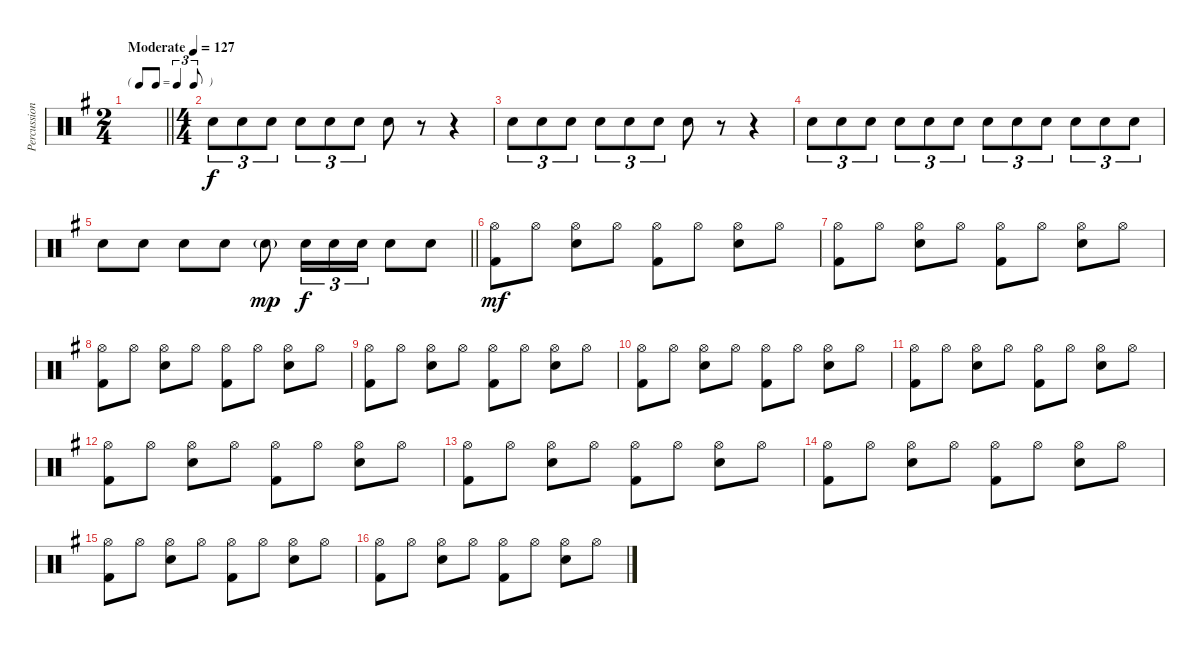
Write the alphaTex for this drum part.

\track ("Percussion" "Percussion") {instrument percussion}
\staff {score}
\articulation defaults
\ts (2 4)
\tf triplet8th
\tempo (127 "Moderate")
\clef neutral
\barLineRight lightlight
\ks g
|
\ts (4 4)
"Snare (hit) 2".8{tu (3 2)} "Snare (hit) 2".8{tu (3 2)} "Snare (hit) 2".8{tu (3 2)} "Snare (hit) 2".8{tu (3 2)} "Snare (hit) 2".8{tu (3 2)} "Snare (hit) 2".8{tu (3 2)} "Snare (hit) 2".8 r.8 r.4 |
"Snare (hit) 2".8{tu (3 2)} "Snare (hit) 2".8{tu (3 2)} "Snare (hit) 2".8{tu (3 2)} "Snare (hit) 2".8{tu (3 2)} "Snare (hit) 2".8{tu (3 2)} "Snare (hit) 2".8{tu (3 2)} "Snare (hit) 2".8 r.8 r.4 |
"Snare (hit) 2".8{tu (3 2)} "Snare (hit) 2".8{tu (3 2)} "Snare (hit) 2".8{tu (3 2)} "Snare (hit) 2".8{tu (3 2)} "Snare (hit) 2".8{tu (3 2)} "Snare (hit) 2".8{tu (3 2)} "Snare (hit) 2".8{tu (3 2)} "Snare (hit) 2".8{tu (3 2)} "Snare (hit) 2".8{tu (3 2)} "Snare (hit) 2".8{tu (3 2)} "Snare (hit) 2".8{tu (3 2)} "Snare (hit) 2".8{tu (3 2)} |
\barLineRight lightlight "Snare (hit) 2".8{dy f} "Snare (hit) 2".8 "Snare (hit) 2".8 "Snare (hit) 2".8 "Snare (hit) 2"{g}.8{dy mp} "Snare (hit) 2".16{tu (3 2) dy f} "Snare (hit) 2".16{tu (3 2)} "Snare (hit) 2".16{tu (3 2)} "Snare (hit) 2".8 "Snare (hit) 2".8
|
("Hi-Hat (open)" "Kick (hit) 2").8{dy mf} "Hi-Hat (open)".8 ("Hi-Hat (open)" "Snare (hit) 2").8 "Hi-Hat (open)".8 ("Hi-Hat (open)" "Kick (hit) 2").8 "Hi-Hat (open)".8 ("Hi-Hat (open)" "Snare (hit) 2").8 "Hi-Hat (open)".8 |
("Hi-Hat (open)" "Kick (hit) 2").8 "Hi-Hat (open)".8 ("Hi-Hat (open)" "Snare (hit) 2").8 "Hi-Hat (open)".8 ("Hi-Hat (open)" "Kick (hit) 2").8 "Hi-Hat (open)".8 ("Hi-Hat (open)" "Snare (hit) 2").8 "Hi-Hat (open)".8 |
("Hi-Hat (open)" "Kick (hit) 2").8 "Hi-Hat (open)".8 ("Hi-Hat (open)" "Snare (hit) 2").8 "Hi-Hat (open)".8 ("Hi-Hat (open)" "Kick (hit) 2").8 "Hi-Hat (open)".8 ("Hi-Hat (open)" "Snare (hit) 2").8 "Hi-Hat (open)".8 |
("Hi-Hat (open)" "Kick (hit) 2").8 "Hi-Hat (open)".8 ("Hi-Hat (open)" "Snare (hit) 2").8 "Hi-Hat (open)".8 ("Hi-Hat (open)" "Kick (hit) 2").8 "Hi-Hat (open)".8 ("Hi-Hat (open)" "Snare (hit) 2").8 "Hi-Hat (open)".8 |
("Hi-Hat (open)" "Kick (hit) 2").8 "Hi-Hat (open)".8 ("Hi-Hat (open)" "Snare (hit) 2").8 "Hi-Hat (open)".8 ("Hi-Hat (open)" "Kick (hit) 2").8 "Hi-Hat (open)".8 ("Hi-Hat (open)" "Snare (hit) 2").8 "Hi-Hat (open)".8 |
("Hi-Hat (open)" "Kick (hit) 2").8 "Hi-Hat (open)".8 ("Hi-Hat (open)" "Snare (hit) 2").8 "Hi-Hat (open)".8 ("Hi-Hat (open)" "Kick (hit) 2").8 "Hi-Hat (open)".8 ("Hi-Hat (open)" "Snare (hit) 2").8 "Hi-Hat (open)".8 |
("Hi-Hat (open)" "Kick (hit) 2").8 "Hi-Hat (open)".8 ("Hi-Hat (open)" "Snare (hit) 2").8 "Hi-Hat (open)".8 ("Hi-Hat (open)" "Kick (hit) 2").8 "Hi-Hat (open)".8 ("Hi-Hat (open)" "Snare (hit) 2").8 "Hi-Hat (open)".8 |
("Hi-Hat (open)" "Kick (hit) 2").8 "Hi-Hat (open)".8 ("Hi-Hat (open)" "Snare (hit) 2").8 "Hi-Hat (open)".8 ("Hi-Hat (open)" "Kick (hit) 2").8 "Hi-Hat (open)".8 ("Hi-Hat (open)" "Snare (hit) 2").8 "Hi-Hat (open)".8 |
("Hi-Hat (open)" "Kick (hit) 2").8 "Hi-Hat (open)".8 ("Hi-Hat (open)" "Snare (hit) 2").8 "Hi-Hat (open)".8 ("Hi-Hat (open)" "Kick (hit) 2").8 "Hi-Hat (open)".8 ("Hi-Hat (open)" "Snare (hit) 2").8 "Hi-Hat (open)".8 |
("Hi-Hat (open)" "Kick (hit) 2").8 "Hi-Hat (open)".8 ("Hi-Hat (open)" "Snare (hit) 2").8 "Hi-Hat (open)".8 ("Hi-Hat (open)" "Kick (hit) 2").8 "Hi-Hat (open)".8 ("Hi-Hat (open)" "Snare (hit) 2").8 "Hi-Hat (open)".8 |
("Hi-Hat (open)" "Kick (hit) 2").8 "Hi-Hat (open)".8 ("Hi-Hat (open)" "Snare (hit) 2").8 "Hi-Hat (open)".8 ("Hi-Hat (open)" "Kick (hit) 2").8 "Hi-Hat (open)".8 ("Hi-Hat (open)" "Snare (hit) 2").8 "Hi-Hat (open)".8
